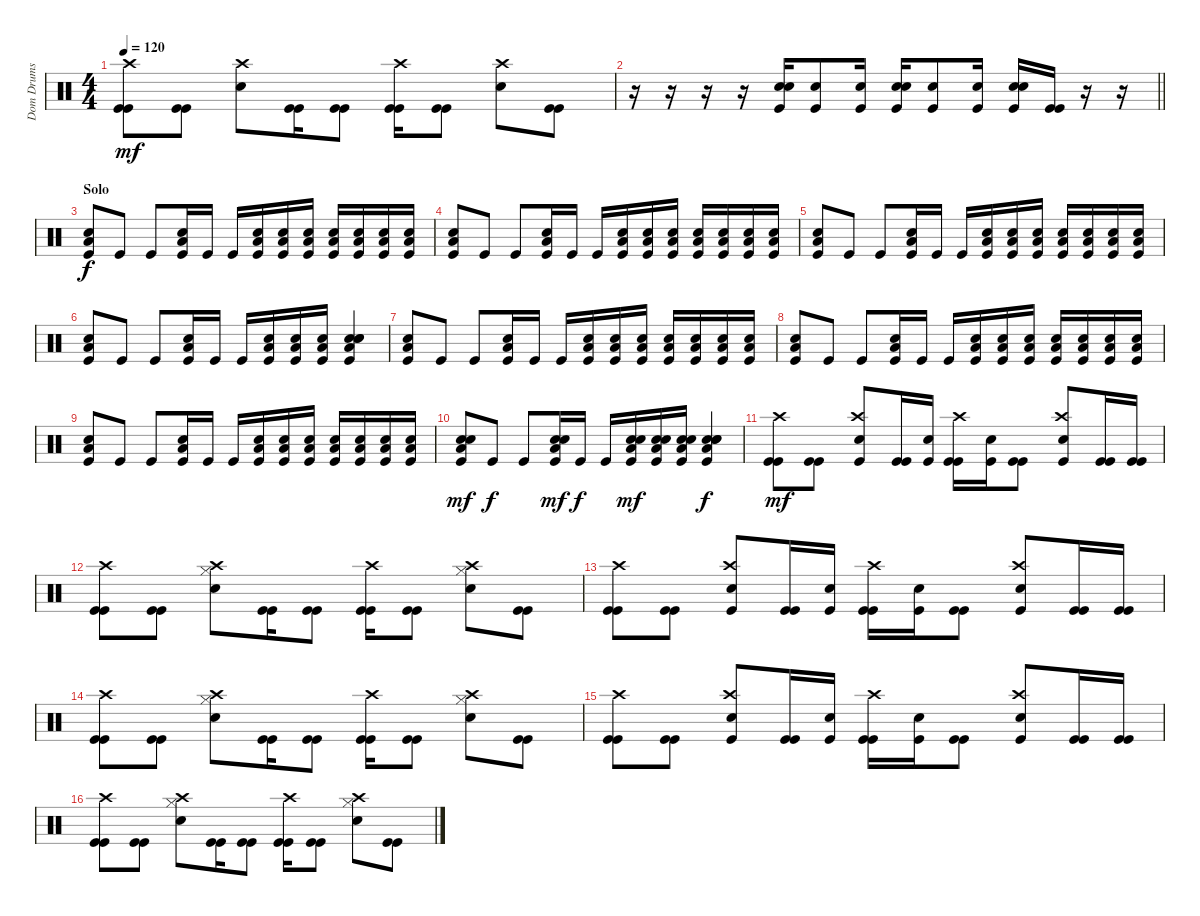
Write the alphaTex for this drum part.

\track ("Dom Drums" "Dom Drums") {instrument percussion}
\staff {score}
\articulation defaults
\ts (4 4)
\tempo 120
\clef neutral
\ks c
("Kick (hit)" "Kick (hit)" "Crash high (hit)").8{dy mf} ("Kick (hit)" "Kick (hit)").8 ("Electric Snare (hit)" "Crash high (hit)").8 ("Kick (hit)" "Kick (hit)").16 ("Kick (hit)" "Kick (hit)").8 ("Kick (hit)" "Kick (hit)" "Crash high (hit)").16 ("Kick (hit)" "Kick (hit)").8 ("Electric Snare (hit)" "Crash high (hit)").8 ("Kick (hit)" "Kick (hit)").8 |
\barLineRight lightlight
r.16 r.16 r.16 r.16 ("Electric Snare (hit)" "Kick (hit)" "Hand Clap (hit)").16 ("Kick (hit)" "Hand Clap (hit)").8 ("Kick (hit)" "Hand Clap (hit)").16 ("Electric Snare (hit)" "Kick (hit)" "Hand Clap (hit)").16 ("Kick (hit)" "Hand Clap (hit)").8 ("Kick (hit)" "Hand Clap (hit)").16 ("Electric Snare (hit)" "Kick (hit)" "Hand Clap (hit)").16 ("Kick (hit)" "Kick (hit)").16 r.16 r.16 |
\section ("" "Solo")
("Kick (hit)" "Low Floor Tom (hit)" "Hand Clap (hit)").8{dy f} "Kick (hit)".8 "Kick (hit)".8 ("Kick (hit)" "Low Floor Tom (hit)" "Hand Clap (hit)").16 "Kick (hit)".16 "Kick (hit)".16 ("Kick (hit)" "Low Floor Tom (hit)" "Hand Clap (hit)").16 ("Kick (hit)" "Low Floor Tom (hit)" "Hand Clap (hit)").16 ("Kick (hit)" "Low Floor Tom (hit)" "Hand Clap (hit)").16 ("Kick (hit)" "Low Floor Tom (hit)" "Hand Clap (hit)").16 ("Kick (hit)" "Low Floor Tom (hit)" "Hand Clap (hit)").16 ("Kick (hit)" "Low Floor Tom (hit)" "Hand Clap (hit)").16 ("Kick (hit)" "Low Floor Tom (hit)" "Hand Clap (hit)").16 |
("Kick (hit)" "Low Floor Tom (hit)" "Hand Clap (hit)").8 "Kick (hit)".8 "Kick (hit)".8 ("Kick (hit)" "Low Floor Tom (hit)" "Hand Clap (hit)").16 "Kick (hit)".16 "Kick (hit)".16 ("Kick (hit)" "Low Floor Tom (hit)" "Hand Clap (hit)").16 ("Kick (hit)" "Low Floor Tom (hit)" "Hand Clap (hit)").16 ("Kick (hit)" "Low Floor Tom (hit)" "Hand Clap (hit)").16 ("Kick (hit)" "Low Floor Tom (hit)" "Hand Clap (hit)").16 ("Kick (hit)" "Low Floor Tom (hit)" "Hand Clap (hit)").16 ("Kick (hit)" "Low Floor Tom (hit)" "Hand Clap (hit)").16 ("Kick (hit)" "Low Floor Tom (hit)" "Hand Clap (hit)").16 |
("Kick (hit)" "Low Floor Tom (hit)" "Hand Clap (hit)").8 "Kick (hit)".8 "Kick (hit)".8 ("Kick (hit)" "Low Floor Tom (hit)" "Hand Clap (hit)").16 "Kick (hit)".16 "Kick (hit)".16 ("Kick (hit)" "Low Floor Tom (hit)" "Hand Clap (hit)").16 ("Kick (hit)" "Low Floor Tom (hit)" "Hand Clap (hit)").16 ("Kick (hit)" "Low Floor Tom (hit)" "Hand Clap (hit)").16 ("Kick (hit)" "Low Floor Tom (hit)" "Hand Clap (hit)").16 ("Kick (hit)" "Low Floor Tom (hit)" "Hand Clap (hit)").16 ("Kick (hit)" "Low Floor Tom (hit)" "Hand Clap (hit)").16 ("Kick (hit)" "Low Floor Tom (hit)" "Hand Clap (hit)").16 |
("Kick (hit)" "Low Floor Tom (hit)" "Hand Clap (hit)").8 "Kick (hit)".8 "Kick (hit)".8 ("Kick (hit)" "Low Floor Tom (hit)" "Hand Clap (hit)").16 "Kick (hit)".16 "Kick (hit)".16 ("Kick (hit)" "Low Floor Tom (hit)" "Hand Clap (hit)").16 ("Kick (hit)" "Low Floor Tom (hit)" "Hand Clap (hit)").16 ("Kick (hit)" "Low Floor Tom (hit)" "Hand Clap (hit)").16 ("Kick (hit)" "Snare (hit) 2" "Low Floor Tom (hit)" "Hand Clap (hit)" "Snare (hit) 2").4 |
("Kick (hit)" "Low Floor Tom (hit)" "Hand Clap (hit)").8 "Kick (hit)".8 "Kick (hit)".8 ("Kick (hit)" "Low Floor Tom (hit)" "Hand Clap (hit)").16 "Kick (hit)".16 "Kick (hit)".16 ("Kick (hit)" "Low Floor Tom (hit)" "Hand Clap (hit)").16 ("Kick (hit)" "Low Floor Tom (hit)" "Hand Clap (hit)").16 ("Kick (hit)" "Low Floor Tom (hit)" "Hand Clap (hit)").16 ("Kick (hit)" "Low Floor Tom (hit)" "Hand Clap (hit)").16 ("Kick (hit)" "Low Floor Tom (hit)" "Hand Clap (hit)").16 ("Kick (hit)" "Low Floor Tom (hit)" "Hand Clap (hit)").16 ("Kick (hit)" "Low Floor Tom (hit)" "Hand Clap (hit)").16 |
("Kick (hit)" "Low Floor Tom (hit)" "Hand Clap (hit)").8 "Kick (hit)".8 "Kick (hit)".8 ("Kick (hit)" "Low Floor Tom (hit)" "Hand Clap (hit)").16 "Kick (hit)".16 "Kick (hit)".16 ("Kick (hit)" "Low Floor Tom (hit)" "Hand Clap (hit)").16 ("Kick (hit)" "Low Floor Tom (hit)" "Hand Clap (hit)").16 ("Kick (hit)" "Low Floor Tom (hit)" "Hand Clap (hit)").16 ("Kick (hit)" "Low Floor Tom (hit)" "Hand Clap (hit)").16 ("Kick (hit)" "Low Floor Tom (hit)" "Hand Clap (hit)").16 ("Kick (hit)" "Low Floor Tom (hit)" "Hand Clap (hit)").16 ("Kick (hit)" "Low Floor Tom (hit)" "Hand Clap (hit)").16 |
("Kick (hit)" "Low Floor Tom (hit)" "Hand Clap (hit)").8 "Kick (hit)".8 "Kick (hit)".8 ("Kick (hit)" "Low Floor Tom (hit)" "Hand Clap (hit)").16 "Kick (hit)".16 "Kick (hit)".16 ("Kick (hit)" "Low Floor Tom (hit)" "Hand Clap (hit)").16 ("Kick (hit)" "Low Floor Tom (hit)" "Hand Clap (hit)").16 ("Kick (hit)" "Low Floor Tom (hit)" "Hand Clap (hit)").16 ("Kick (hit)" "Low Floor Tom (hit)" "Hand Clap (hit)").16 ("Kick (hit)" "Low Floor Tom (hit)" "Hand Clap (hit)").16 ("Kick (hit)" "Low Floor Tom (hit)" "Hand Clap (hit)").16 ("Kick (hit)" "Low Floor Tom (hit)" "Hand Clap (hit)").16 |
("Kick (hit)" "Electric Snare (hit)" "Low Floor Tom (hit)" "Hand Clap (hit)").8{dy mf} "Kick (hit)".8{dy f} "Kick (hit)".8 ("Kick (hit)" "Electric Snare (hit)" "Low Floor Tom (hit)" "Hand Clap (hit)").16{dy mf} "Kick (hit)".16{dy f} "Kick (hit)".16 ("Kick (hit)" "Electric Snare (hit)" "Low Floor Tom (hit)" "Hand Clap (hit)").16{dy mf} ("Kick (hit)" "Electric Snare (hit)" "Low Floor Tom (hit)" "Hand Clap (hit)").16 ("Kick (hit)" "Electric Snare (hit)" "Low Floor Tom (hit)" "Hand Clap (hit)").16 ("Kick (hit)" "Snare (hit) 2" "Low Floor Tom (hit)" "Hand Clap (hit)" "Snare (hit) 2").4{dy f} |
("Crash high (hit)" "Kick (hit)" "Kick (hit)").8{dy mf} ("Kick (hit)" "Kick (hit)").8 ("Crash high (hit)" "Kick (hit)" "Electric Snare (hit)").8 ("Kick (hit)" "Kick (hit)").16 ("Kick (hit)" "Electric Snare (hit)").16 ("Crash high (hit)" "Kick (hit)" "Kick (hit)").16 ("Kick (hit)" "Electric Snare (hit)").16 ("Kick (hit)" "Kick (hit)").8 ("Crash high (hit)" "Kick (hit)" "Electric Snare (hit)").8 ("Kick (hit)" "Kick (hit)").16 ("Kick (hit)" "Kick (hit)").16 |
("Kick (hit)" "Kick (hit)" "Crash high (hit)").8 ("Kick (hit)" "Kick (hit)").8 ("Electric Snare (hit)" "Hi-Hat (closed)" "Crash high (hit)").8 ("Kick (hit)" "Kick (hit)").16 ("Kick (hit)" "Kick (hit)").8 ("Kick (hit)" "Kick (hit)" "Crash high (hit)").16 ("Kick (hit)" "Kick (hit)").8 ("Electric Snare (hit)" "Hi-Hat (closed)" "Crash high (hit)").8 ("Kick (hit)" "Kick (hit)").8 |
("Crash high (hit)" "Kick (hit)" "Kick (hit)").8 ("Kick (hit)" "Kick (hit)").8 ("Crash high (hit)" "Kick (hit)" "Electric Snare (hit)").8 ("Kick (hit)" "Kick (hit)").16 ("Kick (hit)" "Electric Snare (hit)").16 ("Crash high (hit)" "Kick (hit)" "Kick (hit)").16 ("Kick (hit)" "Electric Snare (hit)").16 ("Kick (hit)" "Kick (hit)").8 ("Crash high (hit)" "Kick (hit)" "Electric Snare (hit)").8 ("Kick (hit)" "Kick (hit)").16 ("Kick (hit)" "Kick (hit)").16 |
("Kick (hit)" "Kick (hit)" "Crash high (hit)").8 ("Kick (hit)" "Kick (hit)").8 ("Electric Snare (hit)" "Hi-Hat (closed)" "Crash high (hit)").8 ("Kick (hit)" "Kick (hit)").16 ("Kick (hit)" "Kick (hit)").8 ("Kick (hit)" "Kick (hit)" "Crash high (hit)").16 ("Kick (hit)" "Kick (hit)").8 ("Electric Snare (hit)" "Hi-Hat (closed)" "Crash high (hit)").8 ("Kick (hit)" "Kick (hit)").8 |
("Crash high (hit)" "Kick (hit)" "Kick (hit)").8 ("Kick (hit)" "Kick (hit)").8 ("Crash high (hit)" "Kick (hit)" "Electric Snare (hit)").8 ("Kick (hit)" "Kick (hit)").16 ("Kick (hit)" "Electric Snare (hit)").16 ("Crash high (hit)" "Kick (hit)" "Kick (hit)").16 ("Kick (hit)" "Electric Snare (hit)").16 ("Kick (hit)" "Kick (hit)").8 ("Crash high (hit)" "Kick (hit)" "Electric Snare (hit)").8 ("Kick (hit)" "Kick (hit)").16 ("Kick (hit)" "Kick (hit)").16 |
("Kick (hit)" "Kick (hit)" "Crash high (hit)").8 ("Kick (hit)" "Kick (hit)").8 ("Electric Snare (hit)" "Hi-Hat (closed)" "Crash high (hit)").8 ("Kick (hit)" "Kick (hit)").16 ("Kick (hit)" "Kick (hit)").8 ("Kick (hit)" "Kick (hit)" "Crash high (hit)").16 ("Kick (hit)" "Kick (hit)").8 ("Electric Snare (hit)" "Hi-Hat (closed)" "Crash high (hit)").8 ("Kick (hit)" "Kick (hit)").8
